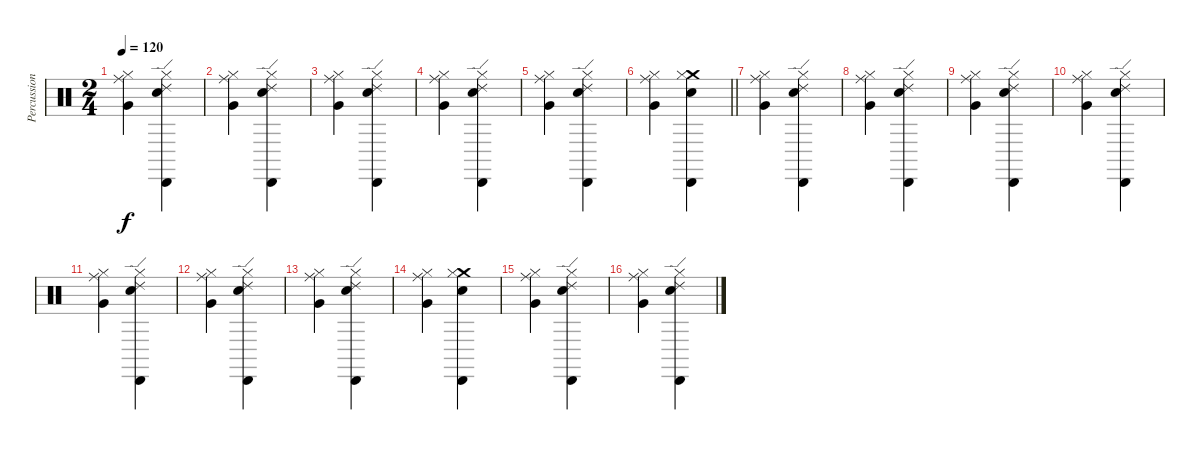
\track ("Percussions" "Percussion") {instrument percussion}
\staff {score}
\articulation defaults
\ts (2 4)
\tempo 120
\clef neutral
\ks c
("Ride (middle)" "Hi-Hat (closed)" "Very Low Tom (hit)").4{dy f} ("Ride (edge) 2" "Cabasa (hit)" "Hi-Hat (closed)" "Electric Snare (hit)").4 |
("Ride (middle)" "Hi-Hat (closed)" "Very Low Tom (hit)").4 ("Ride (edge) 2" "Cabasa (hit)" "Hi-Hat (closed)" "Electric Snare (hit)").4 |
("Ride (middle)" "Hi-Hat (closed)" "Very Low Tom (hit)").4 ("Ride (edge) 2" "Cabasa (hit)" "Hi-Hat (closed)" "Electric Snare (hit)").4 |
("Ride (middle)" "Hi-Hat (closed)" "Very Low Tom (hit)").4 ("Ride (edge) 2" "Cabasa (hit)" "Hi-Hat (closed)" "Electric Snare (hit)").4 |
("Ride (middle)" "Hi-Hat (closed)" "Very Low Tom (hit)").4 ("Ride (edge) 2" "Cabasa (hit)" "Hi-Hat (closed)" "Electric Snare (hit)").4 |
\barLineRight lightlight
("Ride (middle)" "Hi-Hat (closed)" "Very Low Tom (hit)").4 ("Crash medium (hit)" "Cabasa (hit)" "Hi-Hat (closed)" "Electric Snare (hit)").4 |
("Ride (middle)" "Hi-Hat (closed)" "Very Low Tom (hit)").4 ("Ride (edge) 2" "Cabasa (hit)" "Hi-Hat (closed)" "Electric Snare (hit)").4 |
("Ride (middle)" "Hi-Hat (closed)" "Very Low Tom (hit)").4 ("Ride (edge) 2" "Cabasa (hit)" "Hi-Hat (closed)" "Electric Snare (hit)").4 |
("Ride (middle)" "Hi-Hat (closed)" "Very Low Tom (hit)").4 ("Ride (edge) 2" "Cabasa (hit)" "Hi-Hat (closed)" "Electric Snare (hit)").4 |
("Ride (middle)" "Hi-Hat (closed)" "Very Low Tom (hit)").4 ("Ride (edge) 2" "Cabasa (hit)" "Hi-Hat (closed)" "Electric Snare (hit)").4 |
("Ride (middle)" "Hi-Hat (closed)" "Very Low Tom (hit)").4 ("Ride (edge) 2" "Cabasa (hit)" "Hi-Hat (closed)" "Electric Snare (hit)").4 |
("Ride (middle)" "Hi-Hat (closed)" "Very Low Tom (hit)").4 ("Ride (edge) 2" "Cabasa (hit)" "Hi-Hat (closed)" "Electric Snare (hit)").4 |
("Ride (middle)" "Hi-Hat (closed)" "Very Low Tom (hit)").4 ("Ride (edge) 2" "Cabasa (hit)" "Hi-Hat (closed)" "Electric Snare (hit)").4 |
("Ride (middle)" "Hi-Hat (closed)" "Very Low Tom (hit)").4 ("Crash medium (hit)" "Cabasa (hit)" "Hi-Hat (closed)" "Electric Snare (hit)").4 |
("Ride (middle)" "Hi-Hat (closed)" "Very Low Tom (hit)").4 ("Ride (edge) 2" "Cabasa (hit)" "Hi-Hat (closed)" "Electric Snare (hit)").4 |
("Ride (middle)" "Hi-Hat (closed)" "Very Low Tom (hit)").4 ("Ride (edge) 2" "Cabasa (hit)" "Hi-Hat (closed)" "Electric Snare (hit)").4
